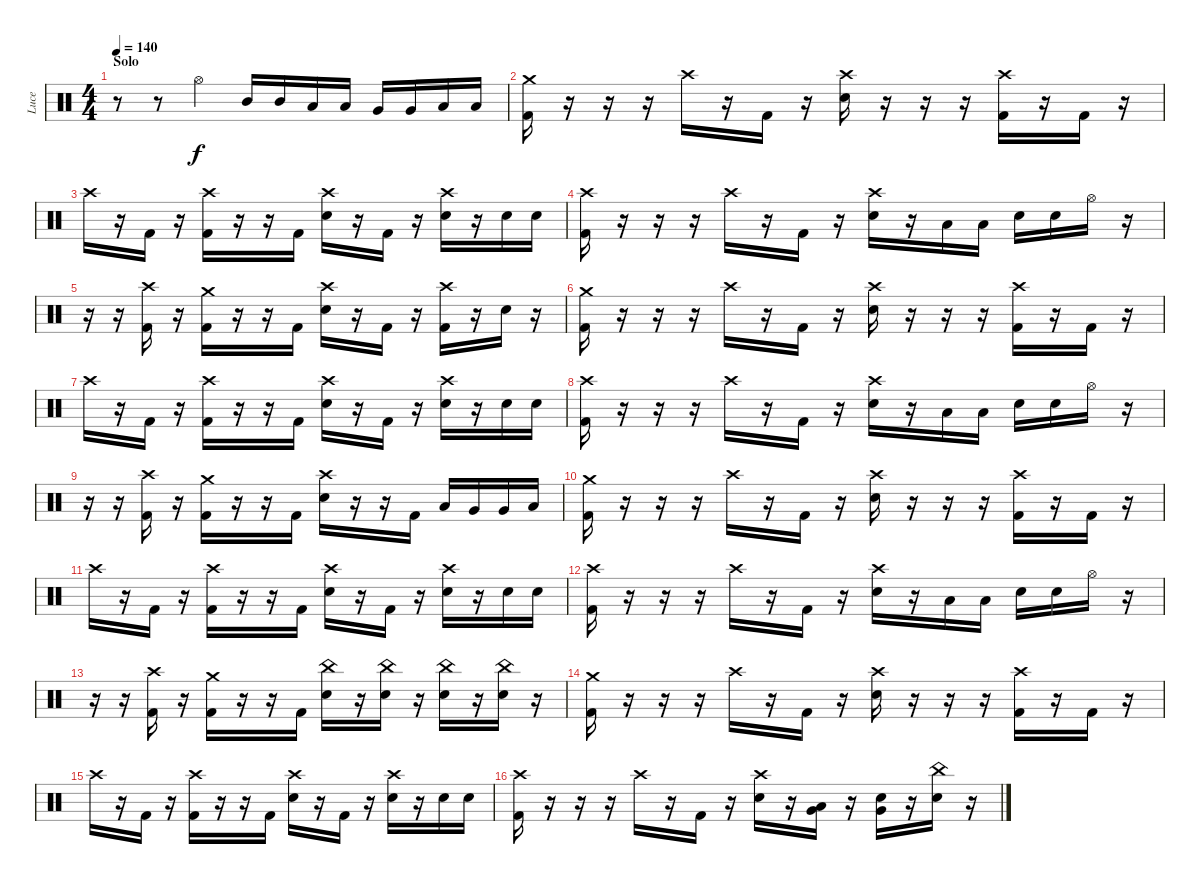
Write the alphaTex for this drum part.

\track ("Luce" "Luce") {instrument percussion}
\staff {score}
\articulation defaults
\ts (4 4)
\section ("" "Solo")
\tempo 140
\clef neutral
\ks c
r.8{dy f} r.8 "Hi-Hat (open)".4 "Mid Tom (hit)".16 "Mid Tom (hit)".16 "Low Tom (hit)".16 "Low Tom (hit)".16 "Very Low Tom (hit)".16 "Very Low Tom (hit)".16 "Low Floor Tom (hit)".16 "Low Floor Tom (hit)".16 |
("Crash medium (hit)" "Kick (hit) 2").16 r.16 r.16 r.16 "Crash high (hit)".16 r.16 "Kick (hit) 2".16 r.16 ("Crash high (hit)" "Electric Snare (hit)").16 r.16 r.16 r.16 ("Crash high (hit)" "Kick (hit) 2").16 r.16 "Kick (hit) 2".16 r.16 |
"Crash high (hit)".16 r.16 "Kick (hit) 2".16 r.16 ("Crash high (hit)" "Kick (hit) 2").16 r.16 r.16 "Kick (hit) 2".16 ("Crash high (hit)" "Electric Snare (hit)").16 r.16 "Kick (hit) 2".16 r.16 ("Crash high (hit)" "Electric Snare (hit)").16 r.16 "Electric Snare (hit)".16 "Electric Snare (hit)".16 |
("Crash high (hit)" "Kick (hit) 2").16 r.16 r.16 r.16 "Crash high (hit)".16 r.16 "Kick (hit) 2".16 r.16 ("Crash high (hit)" "Electric Snare (hit)").16 r.16 "Low Tom (hit)".16 "Low Tom (hit)".16 "Electric Snare (hit)".16 "Electric Snare (hit)".16 "Hi-Hat (open)".16 r.16 |
r.16 r.16 ("Crash high (hit)" "Kick (hit) 2").16 r.16 ("Crash medium (hit)" "Kick (hit) 2").16 r.16 r.16 "Kick (hit) 2".16 ("Crash high (hit)" "Electric Snare (hit)").16 r.16 "Kick (hit) 2".16 r.16 ("Crash high (hit)" "Kick (hit) 2").16 r.16 "Electric Snare (hit)".16 r.16 |
("Crash medium (hit)" "Kick (hit) 2").16 r.16 r.16 r.16 "Crash high (hit)".16 r.16 "Kick (hit) 2".16 r.16 ("Crash high (hit)" "Electric Snare (hit)").16 r.16 r.16 r.16 ("Crash high (hit)" "Kick (hit) 2").16 r.16 "Kick (hit) 2".16 r.16 |
"Crash high (hit)".16 r.16 "Kick (hit) 2".16 r.16 ("Crash high (hit)" "Kick (hit) 2").16 r.16 r.16 "Kick (hit) 2".16 ("Crash high (hit)" "Electric Snare (hit)").16 r.16 "Kick (hit) 2".16 r.16 ("Crash high (hit)" "Electric Snare (hit)").16 r.16 "Electric Snare (hit)".16 "Electric Snare (hit)".16 |
("Crash high (hit)" "Kick (hit) 2").16 r.16 r.16 r.16 "Crash high (hit)".16 r.16 "Kick (hit) 2".16 r.16 ("Crash high (hit)" "Electric Snare (hit)").16 r.16 "Low Tom (hit)".16 "Low Tom (hit)".16 "Electric Snare (hit)".16 "Electric Snare (hit)".16 "Hi-Hat (open)".16 r.16 |
r.16 r.16 ("Crash high (hit)" "Kick (hit) 2").16 r.16 ("Crash medium (hit)" "Kick (hit) 2").16 r.16 r.16 "Kick (hit) 2".16 ("Crash high (hit)" "Electric Snare (hit)").16 r.16 r.16 "Kick (hit) 2".16 "Low Tom (hit)".16 "Very Low Tom (hit)".16 "Very Low Tom (hit)".16 "Low Floor Tom (hit)".16 |
("Crash medium (hit)" "Kick (hit) 2").16 r.16 r.16 r.16 "Crash high (hit)".16 r.16 "Kick (hit) 2".16 r.16 ("Crash high (hit)" "Electric Snare (hit)").16 r.16 r.16 r.16 ("Crash high (hit)" "Kick (hit) 2").16 r.16 "Kick (hit) 2".16 r.16 |
"Crash high (hit)".16 r.16 "Kick (hit) 2".16 r.16 ("Crash high (hit)" "Kick (hit) 2").16 r.16 r.16 "Kick (hit) 2".16 ("Crash high (hit)" "Electric Snare (hit)").16 r.16 "Kick (hit) 2".16 r.16 ("Crash high (hit)" "Electric Snare (hit)").16 r.16 "Electric Snare (hit)".16 "Electric Snare (hit)".16 |
("Crash high (hit)" "Kick (hit) 2").16 r.16 r.16 r.16 "Crash high (hit)".16 r.16 "Kick (hit) 2".16 r.16 ("Crash high (hit)" "Electric Snare (hit)").16 r.16 "Low Tom (hit)".16 "Low Tom (hit)".16 "Electric Snare (hit)".16 "Electric Snare (hit)".16 "Hi-Hat (open)".16 r.16 |
r.16 r.16 ("Crash high (hit)" "Kick (hit) 2").16 r.16 ("Crash medium (hit)" "Kick (hit) 2").16 r.16 r.16 "Kick (hit) 2".16 ("China (hit)" "Electric Snare (hit)").16 r.16 ("China (hit)" "Electric Snare (hit)").16 r.16 ("China (hit)" "Electric Snare (hit)").16 r.16 ("China (hit)" "Electric Snare (hit)").16 r.16 |
("Crash medium (hit)" "Kick (hit) 2").16 r.16 r.16 r.16 "Crash high (hit)".16 r.16 "Kick (hit) 2".16 r.16 ("Crash high (hit)" "Electric Snare (hit)").16 r.16 r.16 r.16 ("Crash high (hit)" "Kick (hit) 2").16 r.16 "Kick (hit) 2".16 r.16 |
"Crash high (hit)".16 r.16 "Kick (hit) 2".16 r.16 ("Crash high (hit)" "Kick (hit) 2").16 r.16 r.16 "Kick (hit) 2".16 ("Crash high (hit)" "Electric Snare (hit)").16 r.16 "Kick (hit) 2".16 r.16 ("Crash high (hit)" "Electric Snare (hit)").16 r.16 "Electric Snare (hit)".16 "Electric Snare (hit)".16 |
("Crash high (hit)" "Kick (hit) 2").16 r.16 r.16 r.16 "Crash high (hit)".16 r.16 "Kick (hit) 2".16 r.16 ("Crash high (hit)" "Electric Snare (hit)").16 r.16 ("Low Tom (hit)" "Very Low Tom (hit)").16 r.16 ("Electric Snare (hit)" "Very Low Tom (hit)").16 r.16 ("China (hit)" "Electric Snare (hit)").16 r.16
